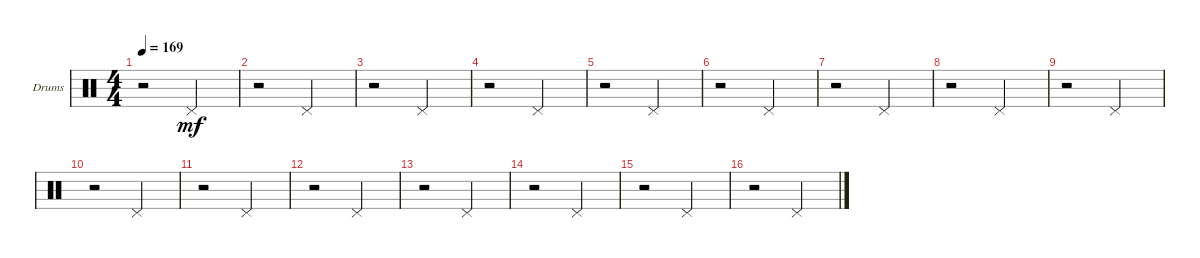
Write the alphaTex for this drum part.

\bracketExtendMode groupsimilarinstruments
\firstSystemTrackNameOrientation horizontal
\otherSystemsTrackNameOrientation horizontal
\track ("Drumkit" "Drums") {instrument percussion}
\staff {score}
\articulation defaults
\ts (4 4)
\tempo 169
\clef neutral
\ks c
r.2{dy mf} "Pedal Hi-Hat (hit)".2 |
r.2 "Pedal Hi-Hat (hit)".2 |
r.2 "Pedal Hi-Hat (hit)".2 |
r.2 "Pedal Hi-Hat (hit)".2 |
r.2 "Pedal Hi-Hat (hit)".2 |
r.2 "Pedal Hi-Hat (hit)".2 |
r.2 "Pedal Hi-Hat (hit)".2 |
r.2 "Pedal Hi-Hat (hit)".2 |
r.2 "Pedal Hi-Hat (hit)".2 |
r.2 "Pedal Hi-Hat (hit)".2 |
r.2 "Pedal Hi-Hat (hit)".2 |
r.2 "Pedal Hi-Hat (hit)".2 |
r.2 "Pedal Hi-Hat (hit)".2 |
r.2 "Pedal Hi-Hat (hit)".2 |
r.2 "Pedal Hi-Hat (hit)".2 |
r.2 "Pedal Hi-Hat (hit)".2
